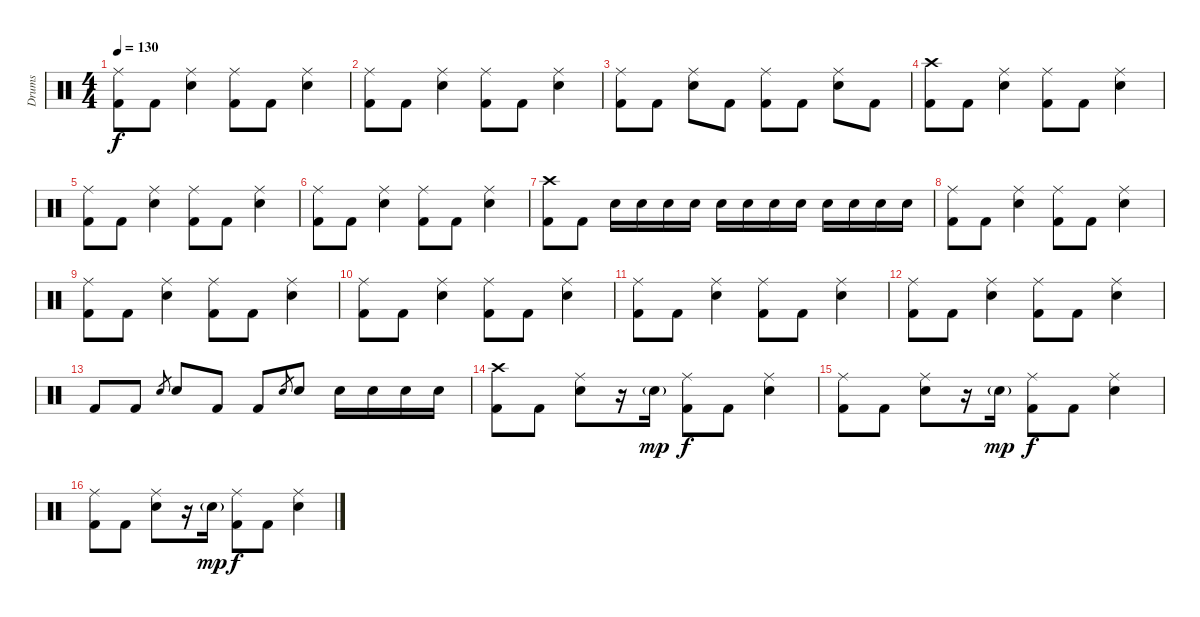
\track ("Drums" "Drums") {instrument percussion}
\staff {score}
\articulation defaults
\ts (4 4)
\tempo 130
\clef neutral
\ks c
("Ride (middle)" "Kick (hit) 2").8{dy f} "Kick (hit) 2".8 ("Ride (middle)" "Electric Snare (hit)").4 ("Ride (middle)" "Kick (hit) 2").8 "Kick (hit) 2".8 ("Ride (middle)" "Electric Snare (hit)").4 |
("Ride (middle)" "Kick (hit) 2").8 "Kick (hit) 2".8 ("Ride (middle)" "Electric Snare (hit)").4 ("Ride (middle)" "Kick (hit) 2").8 "Kick (hit) 2".8 ("Ride (middle)" "Electric Snare (hit)").4 |
("Ride (middle)" "Kick (hit) 2").8 "Kick (hit) 2".8 ("Ride (middle)" "Electric Snare (hit)").8 "Kick (hit) 2".8 ("Ride (middle)" "Kick (hit) 2").8 "Kick (hit) 2".8 ("Ride (middle)" "Electric Snare (hit)").8 "Kick (hit) 2".8 |
("Crash high (hit)" "Kick (hit) 2").8 "Kick (hit) 2".8 ("Ride (middle)" "Electric Snare (hit)").4 ("Ride (middle)" "Kick (hit) 2").8 "Kick (hit) 2".8 ("Ride (middle)" "Electric Snare (hit)").4 |
("Ride (middle)" "Kick (hit) 2").8 "Kick (hit) 2".8 ("Ride (middle)" "Electric Snare (hit)").4 ("Ride (middle)" "Kick (hit) 2").8 "Kick (hit) 2".8 ("Ride (middle)" "Electric Snare (hit)").4 |
("Ride (middle)" "Kick (hit) 2").8 "Kick (hit) 2".8 ("Ride (middle)" "Electric Snare (hit)").4 ("Ride (middle)" "Kick (hit) 2").8 "Kick (hit) 2".8 ("Ride (middle)" "Electric Snare (hit)").4 |
("Crash high (hit)" "Kick (hit) 2").8 "Kick (hit) 2".8 "Electric Snare (hit)".16 "Electric Snare (hit)".16 "Electric Snare (hit)".16 "Electric Snare (hit)".16 "Electric Snare (hit)".16 "Electric Snare (hit)".16 "Electric Snare (hit)".16 "Electric Snare (hit)".16 "Electric Snare (hit)".16 "Electric Snare (hit)".16 "Electric Snare (hit)".16 "Electric Snare (hit)".16 |
("Ride (middle)" "Kick (hit) 2").8 "Kick (hit) 2".8 ("Ride (middle)" "Electric Snare (hit)").4 ("Ride (middle)" "Kick (hit) 2").8 "Kick (hit) 2".8 ("Ride (middle)" "Electric Snare (hit)").4 |
("Ride (middle)" "Kick (hit) 2").8 "Kick (hit) 2".8 ("Ride (middle)" "Electric Snare (hit)").4 ("Ride (middle)" "Kick (hit) 2").8 "Kick (hit) 2".8 ("Ride (middle)" "Electric Snare (hit)").4 |
("Ride (middle)" "Kick (hit) 2").8 "Kick (hit) 2".8 ("Ride (middle)" "Electric Snare (hit)").4 ("Ride (middle)" "Kick (hit) 2").8 "Kick (hit) 2".8 ("Ride (middle)" "Electric Snare (hit)").4 |
("Ride (middle)" "Kick (hit) 2").8 "Kick (hit) 2".8 ("Ride (middle)" "Electric Snare (hit)").4 ("Ride (middle)" "Kick (hit) 2").8 "Kick (hit) 2".8 ("Ride (middle)" "Electric Snare (hit)").4 |
("Ride (middle)" "Kick (hit) 2").8 "Kick (hit) 2".8 ("Ride (middle)" "Electric Snare (hit)").4 ("Ride (middle)" "Kick (hit) 2").8 "Kick (hit) 2".8 ("Ride (middle)" "Electric Snare (hit)").4 |
"Kick (hit) 2".8 "Kick (hit) 2".8 "Electric Snare (hit)".8{gr} "Electric Snare (hit)".8 "Kick (hit) 2".8 "Kick (hit) 2".8 "Electric Snare (hit)".8{gr} "Electric Snare (hit)".8 "Electric Snare (hit)".16 "Electric Snare (hit)".16 "Electric Snare (hit)".16 "Electric Snare (hit)".16 |
("Crash high (hit)" "Kick (hit) 2").8 "Kick (hit) 2".8 ("Ride (middle)" "Electric Snare (hit)").8 r.16 "Electric Snare (hit)"{g}.16{dy mp} ("Ride (middle)" "Kick (hit) 2").8{dy f} "Kick (hit) 2".8 ("Ride (middle)" "Electric Snare (hit)").4 |
("Ride (middle)" "Kick (hit) 2").8 "Kick (hit) 2".8 ("Ride (middle)" "Electric Snare (hit)").8 r.16 "Electric Snare (hit)"{g}.16{dy mp} ("Ride (middle)" "Kick (hit) 2").8{dy f} "Kick (hit) 2".8 ("Ride (middle)" "Electric Snare (hit)").4 |
("Ride (middle)" "Kick (hit) 2").8 "Kick (hit) 2".8 ("Ride (middle)" "Electric Snare (hit)").8 r.16 "Electric Snare (hit)"{g}.16{dy mp} ("Ride (middle)" "Kick (hit) 2").8{dy f} "Kick (hit) 2".8 ("Ride (middle)" "Electric Snare (hit)").4
